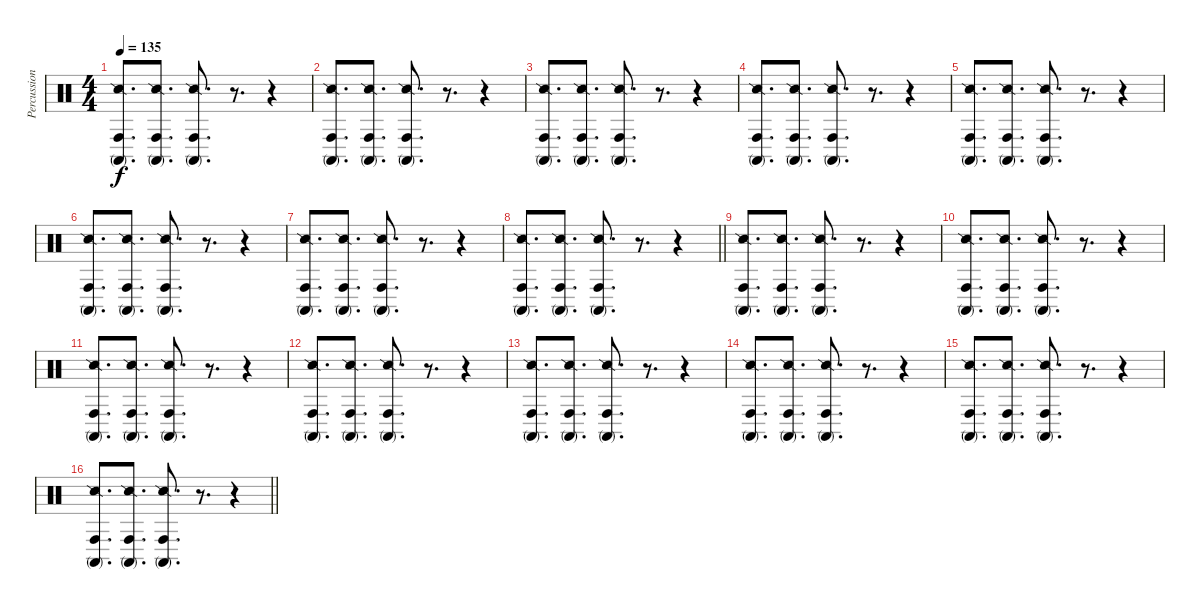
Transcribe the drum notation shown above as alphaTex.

\track ("Percussion FX" "Percussion") {instrument percussion}
\staff {score}
\articulation defaults
\ts (4 4)
\section ("" "")
\tempo 135
\clef neutral
\ks c
("Snare (side stick) 2" "Conga high (mute)" "Conga high (hit)").8{d dy f} ("Snare (side stick) 2" "Conga high (mute)" "Conga high (hit)").8{d} ("Snare (side stick) 2" "Conga high (mute)" "Conga high (hit)").8{d} r.8{d} r.4 |
("Snare (side stick) 2" "Conga high (mute)" "Conga high (hit)").8{d} ("Snare (side stick) 2" "Conga high (mute)" "Conga high (hit)").8{d} ("Snare (side stick) 2" "Conga high (mute)" "Conga high (hit)").8{d} r.8{d} r.4 |
("Snare (side stick) 2" "Conga high (mute)" "Conga high (hit)").8{d} ("Snare (side stick) 2" "Conga high (mute)" "Conga high (hit)").8{d} ("Snare (side stick) 2" "Conga high (mute)" "Conga high (hit)").8{d} r.8{d} r.4 |
("Snare (side stick) 2" "Conga high (mute)" "Conga high (hit)").8{d} ("Snare (side stick) 2" "Conga high (mute)" "Conga high (hit)").8{d} ("Snare (side stick) 2" "Conga high (mute)" "Conga high (hit)").8{d} r.8{d} r.4 |
("Snare (side stick) 2" "Conga high (mute)" "Conga high (hit)").8{d} ("Snare (side stick) 2" "Conga high (mute)" "Conga high (hit)").8{d} ("Snare (side stick) 2" "Conga high (mute)" "Conga high (hit)").8{d} r.8{d} r.4 |
("Snare (side stick) 2" "Conga high (mute)" "Conga high (hit)").8{d} ("Snare (side stick) 2" "Conga high (mute)" "Conga high (hit)").8{d} ("Snare (side stick) 2" "Conga high (mute)" "Conga high (hit)").8{d} r.8{d} r.4 |
("Snare (side stick) 2" "Conga high (mute)" "Conga high (hit)").8{d} ("Snare (side stick) 2" "Conga high (mute)" "Conga high (hit)").8{d} ("Snare (side stick) 2" "Conga high (mute)" "Conga high (hit)").8{d} r.8{d} r.4 |
\barLineRight lightlight
("Snare (side stick) 2" "Conga high (mute)" "Conga high (hit)").8{d} ("Snare (side stick) 2" "Conga high (mute)" "Conga high (hit)").8{d} ("Snare (side stick) 2" "Conga high (mute)" "Conga high (hit)").8{d} r.8{d} r.4 |
("Snare (side stick) 2" "Conga high (mute)" "Conga high (hit)").8{d} ("Snare (side stick) 2" "Conga high (mute)" "Conga high (hit)").8{d} ("Snare (side stick) 2" "Conga high (mute)" "Conga high (hit)").8{d} r.8{d} r.4 |
("Snare (side stick) 2" "Conga high (mute)" "Conga high (hit)").8{d} ("Snare (side stick) 2" "Conga high (mute)" "Conga high (hit)").8{d} ("Snare (side stick) 2" "Conga high (mute)" "Conga high (hit)").8{d} r.8{d} r.4 |
("Snare (side stick) 2" "Conga high (mute)" "Conga high (hit)").8{d} ("Snare (side stick) 2" "Conga high (mute)" "Conga high (hit)").8{d} ("Snare (side stick) 2" "Conga high (mute)" "Conga high (hit)").8{d} r.8{d} r.4 |
("Snare (side stick) 2" "Conga high (mute)" "Conga high (hit)").8{d} ("Snare (side stick) 2" "Conga high (mute)" "Conga high (hit)").8{d} ("Snare (side stick) 2" "Conga high (mute)" "Conga high (hit)").8{d} r.8{d} r.4 |
("Snare (side stick) 2" "Conga high (mute)" "Conga high (hit)").8{d} ("Snare (side stick) 2" "Conga high (mute)" "Conga high (hit)").8{d} ("Snare (side stick) 2" "Conga high (mute)" "Conga high (hit)").8{d} r.8{d} r.4 |
("Snare (side stick) 2" "Conga high (mute)" "Conga high (hit)").8{d} ("Snare (side stick) 2" "Conga high (mute)" "Conga high (hit)").8{d} ("Snare (side stick) 2" "Conga high (mute)" "Conga high (hit)").8{d} r.8{d} r.4 |
("Snare (side stick) 2" "Conga high (mute)" "Conga high (hit)").8{d} ("Snare (side stick) 2" "Conga high (mute)" "Conga high (hit)").8{d} ("Snare (side stick) 2" "Conga high (mute)" "Conga high (hit)").8{d} r.8{d} r.4 |
\barLineRight lightlight
("Snare (side stick) 2" "Conga high (mute)" "Conga high (hit)").8{d} ("Snare (side stick) 2" "Conga high (mute)" "Conga high (hit)").8{d} ("Snare (side stick) 2" "Conga high (mute)" "Conga high (hit)").8{d} r.8{d} r.4
